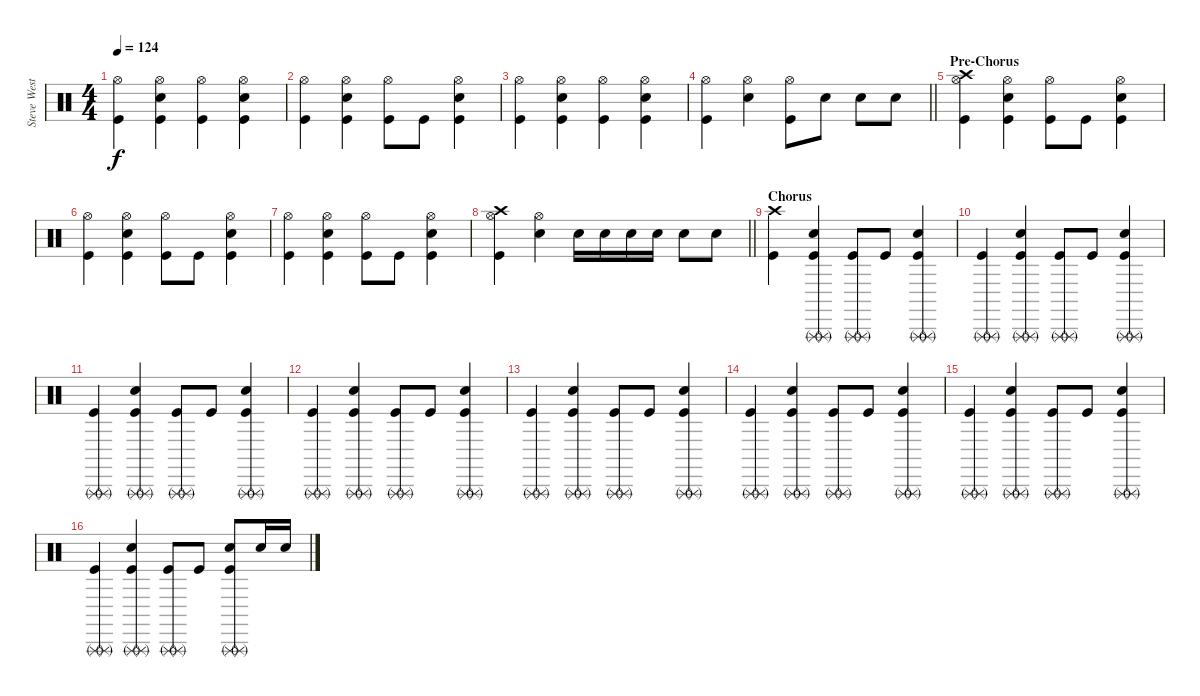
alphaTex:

\track ("Steve West" "Steve West") {instrument percussion}
\staff {score}
\articulation defaults
\ts (4 4)
\tempo 124
\clef neutral
\ks c
("Hi-Hat (open)" "Kick (hit)").4{dy f} ("Hi-Hat (open)" "Snare (hit) 2" "Kick (hit)").4 ("Hi-Hat (open)" "Kick (hit)").4 ("Hi-Hat (open)" "Snare (hit) 2" "Kick (hit)").4 |
("Hi-Hat (open)" "Kick (hit)").4 ("Hi-Hat (open)" "Snare (hit) 2" "Kick (hit)").4 ("Hi-Hat (open)" "Kick (hit)").8 "Kick (hit)".8 ("Hi-Hat (open)" "Snare (hit) 2" "Kick (hit)").4 |
("Hi-Hat (open)" "Kick (hit)").4 ("Hi-Hat (open)" "Snare (hit) 2" "Kick (hit)").4 ("Hi-Hat (open)" "Kick (hit)").4 ("Hi-Hat (open)" "Snare (hit) 2" "Kick (hit)").4 |
\barLineRight lightlight
("Hi-Hat (open)" "Kick (hit)").4 ("Hi-Hat (open)" "Snare (hit) 2").4 ("Hi-Hat (open)" "Kick (hit)").8 "Snare (hit) 2".8 "Snare (hit) 2".8 "Snare (hit) 2".8 |
\section ("" "Pre-Chorus")
("Crash high (hit)" "Hi-Hat (open)" "Kick (hit)").4 ("Hi-Hat (open)" "Snare (hit) 2" "Kick (hit)").4 ("Hi-Hat (open)" "Kick (hit)").8 "Kick (hit)".8 ("Hi-Hat (open)" "Snare (hit) 2" "Kick (hit)").4 |
("Hi-Hat (open)" "Kick (hit)").4 ("Hi-Hat (open)" "Snare (hit) 2" "Kick (hit)").4 ("Hi-Hat (open)" "Kick (hit)").8 "Kick (hit)".8 ("Hi-Hat (open)" "Snare (hit) 2" "Kick (hit)").4 |
("Hi-Hat (open)" "Kick (hit)").4 ("Hi-Hat (open)" "Snare (hit) 2" "Kick (hit)").4 ("Hi-Hat (open)" "Kick (hit)").8 "Kick (hit)".8 ("Hi-Hat (open)" "Snare (hit) 2" "Kick (hit)").4 |
\barLineRight lightlight
("Crash high (hit)" "Hi-Hat (open)" "Kick (hit)").4 ("Hi-Hat (open)" "Snare (hit) 2").4 "Snare (hit) 2".16 "Snare (hit) 2".16 "Snare (hit) 2".16 "Snare (hit) 2".16 "Snare (hit) 2".8 "Snare (hit) 2".8 |
\section ("" "Chorus")
("Crash high (hit)" "Kick (hit)").4 ("Triangle (rnute)" "Triangle (rnute)" "Snare (hit) 2" "Kick (hit)").4 ("Triangle (rnute)" "Triangle (rnute)" "Kick (hit)").8 "Kick (hit)".8 ("Triangle (rnute)" "Triangle (rnute)" "Snare (hit) 2" "Kick (hit)").4 |
("Triangle (rnute)" "Triangle (rnute)" "Kick (hit)").4 ("Triangle (rnute)" "Triangle (rnute)" "Snare (hit) 2" "Kick (hit)").4 ("Triangle (rnute)" "Triangle (rnute)" "Kick (hit)").8 "Kick (hit)".8 ("Triangle (rnute)" "Triangle (rnute)" "Snare (hit) 2" "Kick (hit)").4 |
("Triangle (rnute)" "Triangle (rnute)" "Kick (hit)").4 ("Triangle (rnute)" "Triangle (rnute)" "Snare (hit) 2" "Kick (hit)").4 ("Triangle (rnute)" "Triangle (rnute)" "Kick (hit)").8 "Kick (hit)".8 ("Triangle (rnute)" "Triangle (rnute)" "Snare (hit) 2" "Kick (hit)").4 |
("Triangle (rnute)" "Triangle (rnute)" "Kick (hit)").4 ("Triangle (rnute)" "Triangle (rnute)" "Snare (hit) 2" "Kick (hit)").4 ("Triangle (rnute)" "Triangle (rnute)" "Kick (hit)").8 "Kick (hit)".8 ("Triangle (rnute)" "Triangle (rnute)" "Snare (hit) 2" "Kick (hit)").4 |
("Triangle (rnute)" "Triangle (rnute)" "Kick (hit)").4 ("Triangle (rnute)" "Triangle (rnute)" "Snare (hit) 2" "Kick (hit)").4 ("Triangle (rnute)" "Triangle (rnute)" "Kick (hit)").8 "Kick (hit)".8 ("Triangle (rnute)" "Triangle (rnute)" "Snare (hit) 2" "Kick (hit)").4 |
("Triangle (rnute)" "Triangle (rnute)" "Kick (hit)").4 ("Triangle (rnute)" "Triangle (rnute)" "Snare (hit) 2" "Kick (hit)").4 ("Triangle (rnute)" "Triangle (rnute)" "Kick (hit)").8 "Kick (hit)".8 ("Triangle (rnute)" "Triangle (rnute)" "Snare (hit) 2" "Kick (hit)").4 |
("Triangle (rnute)" "Triangle (rnute)" "Kick (hit)").4 ("Triangle (rnute)" "Triangle (rnute)" "Snare (hit) 2" "Kick (hit)").4 ("Triangle (rnute)" "Triangle (rnute)" "Kick (hit)").8 "Kick (hit)".8 ("Triangle (rnute)" "Triangle (rnute)" "Snare (hit) 2" "Kick (hit)").4 |
("Triangle (rnute)" "Triangle (rnute)" "Kick (hit)").4 ("Triangle (rnute)" "Triangle (rnute)" "Snare (hit) 2" "Kick (hit)").4 ("Triangle (rnute)" "Triangle (rnute)" "Kick (hit)").8 "Kick (hit)".8 ("Triangle (rnute)" "Triangle (rnute)" "Snare (hit) 2" "Kick (hit)").8 "Snare (hit) 2".16 "Snare (hit) 2".16
